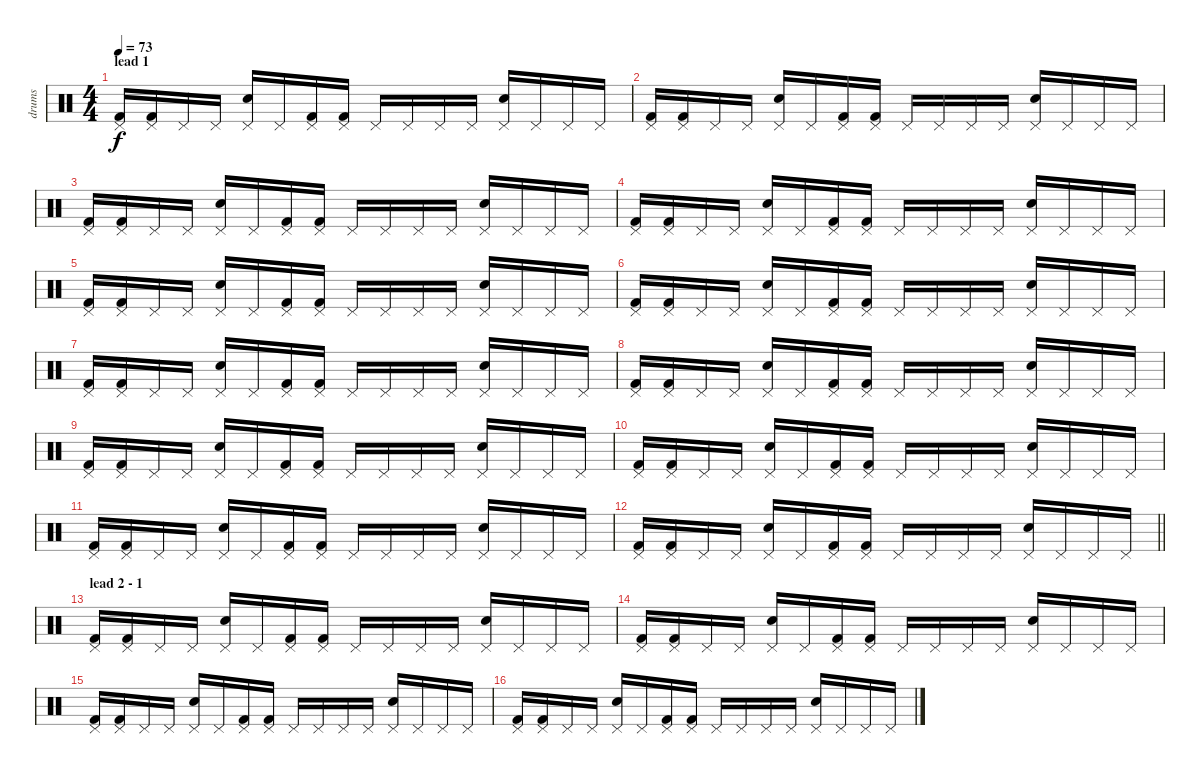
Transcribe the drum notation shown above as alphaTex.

\track ("drums" "drums") {instrument percussion}
\staff {score}
\articulation defaults
\ts (4 4)
\section ("" "lead 1")
\tempo 73
\clef neutral
\ks c
("Kick (hit) 2" "Pedal Hi-Hat (hit)").16{dy f} ("Kick (hit) 2" "Pedal Hi-Hat (hit)").16 "Pedal Hi-Hat (hit)".16 "Pedal Hi-Hat (hit)".16 ("Electric Snare (hit)" "Pedal Hi-Hat (hit)").16 "Pedal Hi-Hat (hit)".16 ("Kick (hit) 2" "Pedal Hi-Hat (hit)").16 ("Kick (hit) 2" "Pedal Hi-Hat (hit)").16 "Pedal Hi-Hat (hit)".16 "Pedal Hi-Hat (hit)".16 "Pedal Hi-Hat (hit)".16 "Pedal Hi-Hat (hit)".16 ("Electric Snare (hit)" "Pedal Hi-Hat (hit)").16 "Pedal Hi-Hat (hit)".16 "Pedal Hi-Hat (hit)".16 "Pedal Hi-Hat (hit)".16 |
("Kick (hit) 2" "Pedal Hi-Hat (hit)").16 ("Kick (hit) 2" "Pedal Hi-Hat (hit)").16 "Pedal Hi-Hat (hit)".16 "Pedal Hi-Hat (hit)".16 ("Electric Snare (hit)" "Pedal Hi-Hat (hit)").16 "Pedal Hi-Hat (hit)".16 ("Kick (hit) 2" "Pedal Hi-Hat (hit)").16 ("Kick (hit) 2" "Pedal Hi-Hat (hit)").16 "Pedal Hi-Hat (hit)".16 "Pedal Hi-Hat (hit)".16 "Pedal Hi-Hat (hit)".16 "Pedal Hi-Hat (hit)".16 ("Electric Snare (hit)" "Pedal Hi-Hat (hit)").16 "Pedal Hi-Hat (hit)".16 "Pedal Hi-Hat (hit)".16 "Pedal Hi-Hat (hit)".16 |
("Kick (hit) 2" "Pedal Hi-Hat (hit)").16 ("Kick (hit) 2" "Pedal Hi-Hat (hit)").16 "Pedal Hi-Hat (hit)".16 "Pedal Hi-Hat (hit)".16 ("Electric Snare (hit)" "Pedal Hi-Hat (hit)").16 "Pedal Hi-Hat (hit)".16 ("Kick (hit) 2" "Pedal Hi-Hat (hit)").16 ("Kick (hit) 2" "Pedal Hi-Hat (hit)").16 "Pedal Hi-Hat (hit)".16 "Pedal Hi-Hat (hit)".16 "Pedal Hi-Hat (hit)".16 "Pedal Hi-Hat (hit)".16 ("Electric Snare (hit)" "Pedal Hi-Hat (hit)").16 "Pedal Hi-Hat (hit)".16 "Pedal Hi-Hat (hit)".16 "Pedal Hi-Hat (hit)".16 |
("Kick (hit) 2" "Pedal Hi-Hat (hit)").16 ("Kick (hit) 2" "Pedal Hi-Hat (hit)").16 "Pedal Hi-Hat (hit)".16 "Pedal Hi-Hat (hit)".16 ("Electric Snare (hit)" "Pedal Hi-Hat (hit)").16 "Pedal Hi-Hat (hit)".16 ("Kick (hit) 2" "Pedal Hi-Hat (hit)").16 ("Kick (hit) 2" "Pedal Hi-Hat (hit)").16 "Pedal Hi-Hat (hit)".16 "Pedal Hi-Hat (hit)".16 "Pedal Hi-Hat (hit)".16 "Pedal Hi-Hat (hit)".16 ("Electric Snare (hit)" "Pedal Hi-Hat (hit)").16 "Pedal Hi-Hat (hit)".16 "Pedal Hi-Hat (hit)".16 "Pedal Hi-Hat (hit)".16 |
("Kick (hit) 2" "Pedal Hi-Hat (hit)").16 ("Kick (hit) 2" "Pedal Hi-Hat (hit)").16 "Pedal Hi-Hat (hit)".16 "Pedal Hi-Hat (hit)".16 ("Electric Snare (hit)" "Pedal Hi-Hat (hit)").16 "Pedal Hi-Hat (hit)".16 ("Kick (hit) 2" "Pedal Hi-Hat (hit)").16 ("Kick (hit) 2" "Pedal Hi-Hat (hit)").16 "Pedal Hi-Hat (hit)".16 "Pedal Hi-Hat (hit)".16 "Pedal Hi-Hat (hit)".16 "Pedal Hi-Hat (hit)".16 ("Electric Snare (hit)" "Pedal Hi-Hat (hit)").16 "Pedal Hi-Hat (hit)".16 "Pedal Hi-Hat (hit)".16 "Pedal Hi-Hat (hit)".16 |
("Kick (hit) 2" "Pedal Hi-Hat (hit)").16 ("Kick (hit) 2" "Pedal Hi-Hat (hit)").16 "Pedal Hi-Hat (hit)".16 "Pedal Hi-Hat (hit)".16 ("Electric Snare (hit)" "Pedal Hi-Hat (hit)").16 "Pedal Hi-Hat (hit)".16 ("Kick (hit) 2" "Pedal Hi-Hat (hit)").16 ("Kick (hit) 2" "Pedal Hi-Hat (hit)").16 "Pedal Hi-Hat (hit)".16 "Pedal Hi-Hat (hit)".16 "Pedal Hi-Hat (hit)".16 "Pedal Hi-Hat (hit)".16 ("Electric Snare (hit)" "Pedal Hi-Hat (hit)").16 "Pedal Hi-Hat (hit)".16 "Pedal Hi-Hat (hit)".16 "Pedal Hi-Hat (hit)".16 |
("Kick (hit) 2" "Pedal Hi-Hat (hit)").16 ("Kick (hit) 2" "Pedal Hi-Hat (hit)").16 "Pedal Hi-Hat (hit)".16 "Pedal Hi-Hat (hit)".16 ("Electric Snare (hit)" "Pedal Hi-Hat (hit)").16 "Pedal Hi-Hat (hit)".16 ("Kick (hit) 2" "Pedal Hi-Hat (hit)").16 ("Kick (hit) 2" "Pedal Hi-Hat (hit)").16 "Pedal Hi-Hat (hit)".16 "Pedal Hi-Hat (hit)".16 "Pedal Hi-Hat (hit)".16 "Pedal Hi-Hat (hit)".16 ("Electric Snare (hit)" "Pedal Hi-Hat (hit)").16 "Pedal Hi-Hat (hit)".16 "Pedal Hi-Hat (hit)".16 "Pedal Hi-Hat (hit)".16 |
("Kick (hit) 2" "Pedal Hi-Hat (hit)").16 ("Kick (hit) 2" "Pedal Hi-Hat (hit)").16 "Pedal Hi-Hat (hit)".16 "Pedal Hi-Hat (hit)".16 ("Electric Snare (hit)" "Pedal Hi-Hat (hit)").16 "Pedal Hi-Hat (hit)".16 ("Kick (hit) 2" "Pedal Hi-Hat (hit)").16 ("Kick (hit) 2" "Pedal Hi-Hat (hit)").16 "Pedal Hi-Hat (hit)".16 "Pedal Hi-Hat (hit)".16 "Pedal Hi-Hat (hit)".16 "Pedal Hi-Hat (hit)".16 ("Electric Snare (hit)" "Pedal Hi-Hat (hit)").16 "Pedal Hi-Hat (hit)".16 "Pedal Hi-Hat (hit)".16 "Pedal Hi-Hat (hit)".16 |
("Kick (hit) 2" "Pedal Hi-Hat (hit)").16 ("Kick (hit) 2" "Pedal Hi-Hat (hit)").16 "Pedal Hi-Hat (hit)".16 "Pedal Hi-Hat (hit)".16 ("Electric Snare (hit)" "Pedal Hi-Hat (hit)").16 "Pedal Hi-Hat (hit)".16 ("Kick (hit) 2" "Pedal Hi-Hat (hit)").16 ("Kick (hit) 2" "Pedal Hi-Hat (hit)").16 "Pedal Hi-Hat (hit)".16 "Pedal Hi-Hat (hit)".16 "Pedal Hi-Hat (hit)".16 "Pedal Hi-Hat (hit)".16 ("Electric Snare (hit)" "Pedal Hi-Hat (hit)").16 "Pedal Hi-Hat (hit)".16 "Pedal Hi-Hat (hit)".16 "Pedal Hi-Hat (hit)".16 |
("Kick (hit) 2" "Pedal Hi-Hat (hit)").16 ("Kick (hit) 2" "Pedal Hi-Hat (hit)").16 "Pedal Hi-Hat (hit)".16 "Pedal Hi-Hat (hit)".16 ("Electric Snare (hit)" "Pedal Hi-Hat (hit)").16 "Pedal Hi-Hat (hit)".16 ("Kick (hit) 2" "Pedal Hi-Hat (hit)").16 ("Kick (hit) 2" "Pedal Hi-Hat (hit)").16 "Pedal Hi-Hat (hit)".16 "Pedal Hi-Hat (hit)".16 "Pedal Hi-Hat (hit)".16 "Pedal Hi-Hat (hit)".16 ("Electric Snare (hit)" "Pedal Hi-Hat (hit)").16 "Pedal Hi-Hat (hit)".16 "Pedal Hi-Hat (hit)".16 "Pedal Hi-Hat (hit)".16 |
("Kick (hit) 2" "Pedal Hi-Hat (hit)").16 ("Kick (hit) 2" "Pedal Hi-Hat (hit)").16 "Pedal Hi-Hat (hit)".16 "Pedal Hi-Hat (hit)".16 ("Electric Snare (hit)" "Pedal Hi-Hat (hit)").16 "Pedal Hi-Hat (hit)".16 ("Kick (hit) 2" "Pedal Hi-Hat (hit)").16 ("Kick (hit) 2" "Pedal Hi-Hat (hit)").16 "Pedal Hi-Hat (hit)".16 "Pedal Hi-Hat (hit)".16 "Pedal Hi-Hat (hit)".16 "Pedal Hi-Hat (hit)".16 ("Electric Snare (hit)" "Pedal Hi-Hat (hit)").16 "Pedal Hi-Hat (hit)".16 "Pedal Hi-Hat (hit)".16 "Pedal Hi-Hat (hit)".16 |
\barLineRight lightlight
("Kick (hit) 2" "Pedal Hi-Hat (hit)").16 ("Kick (hit) 2" "Pedal Hi-Hat (hit)").16 "Pedal Hi-Hat (hit)".16 "Pedal Hi-Hat (hit)".16 ("Electric Snare (hit)" "Pedal Hi-Hat (hit)").16 "Pedal Hi-Hat (hit)".16 ("Kick (hit) 2" "Pedal Hi-Hat (hit)").16 ("Kick (hit) 2" "Pedal Hi-Hat (hit)").16 "Pedal Hi-Hat (hit)".16 "Pedal Hi-Hat (hit)".16 "Pedal Hi-Hat (hit)".16 "Pedal Hi-Hat (hit)".16 ("Electric Snare (hit)" "Pedal Hi-Hat (hit)").16 "Pedal Hi-Hat (hit)".16 "Pedal Hi-Hat (hit)".16 "Pedal Hi-Hat (hit)".16 |
\section ("" "lead 2 - 1")
("Kick (hit) 2" "Pedal Hi-Hat (hit)").16 ("Kick (hit) 2" "Pedal Hi-Hat (hit)").16 "Pedal Hi-Hat (hit)".16 "Pedal Hi-Hat (hit)".16 ("Electric Snare (hit)" "Pedal Hi-Hat (hit)").16 "Pedal Hi-Hat (hit)".16 ("Kick (hit) 2" "Pedal Hi-Hat (hit)").16 ("Kick (hit) 2" "Pedal Hi-Hat (hit)").16 "Pedal Hi-Hat (hit)".16 "Pedal Hi-Hat (hit)".16 "Pedal Hi-Hat (hit)".16 "Pedal Hi-Hat (hit)".16 ("Electric Snare (hit)" "Pedal Hi-Hat (hit)").16 "Pedal Hi-Hat (hit)".16 "Pedal Hi-Hat (hit)".16 "Pedal Hi-Hat (hit)".16 |
("Kick (hit) 2" "Pedal Hi-Hat (hit)").16 ("Kick (hit) 2" "Pedal Hi-Hat (hit)").16 "Pedal Hi-Hat (hit)".16 "Pedal Hi-Hat (hit)".16 ("Electric Snare (hit)" "Pedal Hi-Hat (hit)").16 "Pedal Hi-Hat (hit)".16 ("Kick (hit) 2" "Pedal Hi-Hat (hit)").16 ("Kick (hit) 2" "Pedal Hi-Hat (hit)").16 "Pedal Hi-Hat (hit)".16 "Pedal Hi-Hat (hit)".16 "Pedal Hi-Hat (hit)".16 "Pedal Hi-Hat (hit)".16 ("Electric Snare (hit)" "Pedal Hi-Hat (hit)").16 "Pedal Hi-Hat (hit)".16 "Pedal Hi-Hat (hit)".16 "Pedal Hi-Hat (hit)".16 |
("Kick (hit) 2" "Pedal Hi-Hat (hit)").16 ("Kick (hit) 2" "Pedal Hi-Hat (hit)").16 "Pedal Hi-Hat (hit)".16 "Pedal Hi-Hat (hit)".16 ("Electric Snare (hit)" "Pedal Hi-Hat (hit)").16 "Pedal Hi-Hat (hit)".16 ("Kick (hit) 2" "Pedal Hi-Hat (hit)").16 ("Kick (hit) 2" "Pedal Hi-Hat (hit)").16 "Pedal Hi-Hat (hit)".16 "Pedal Hi-Hat (hit)".16 "Pedal Hi-Hat (hit)".16 "Pedal Hi-Hat (hit)".16 ("Electric Snare (hit)" "Pedal Hi-Hat (hit)").16 "Pedal Hi-Hat (hit)".16 "Pedal Hi-Hat (hit)".16 "Pedal Hi-Hat (hit)".16 |
("Kick (hit) 2" "Pedal Hi-Hat (hit)").16 ("Kick (hit) 2" "Pedal Hi-Hat (hit)").16 "Pedal Hi-Hat (hit)".16 "Pedal Hi-Hat (hit)".16 ("Electric Snare (hit)" "Pedal Hi-Hat (hit)").16 "Pedal Hi-Hat (hit)".16 ("Kick (hit) 2" "Pedal Hi-Hat (hit)").16 ("Kick (hit) 2" "Pedal Hi-Hat (hit)").16 "Pedal Hi-Hat (hit)".16 "Pedal Hi-Hat (hit)".16 "Pedal Hi-Hat (hit)".16 "Pedal Hi-Hat (hit)".16 ("Electric Snare (hit)" "Pedal Hi-Hat (hit)").16 "Pedal Hi-Hat (hit)".16 "Pedal Hi-Hat (hit)".16 "Pedal Hi-Hat (hit)".16
